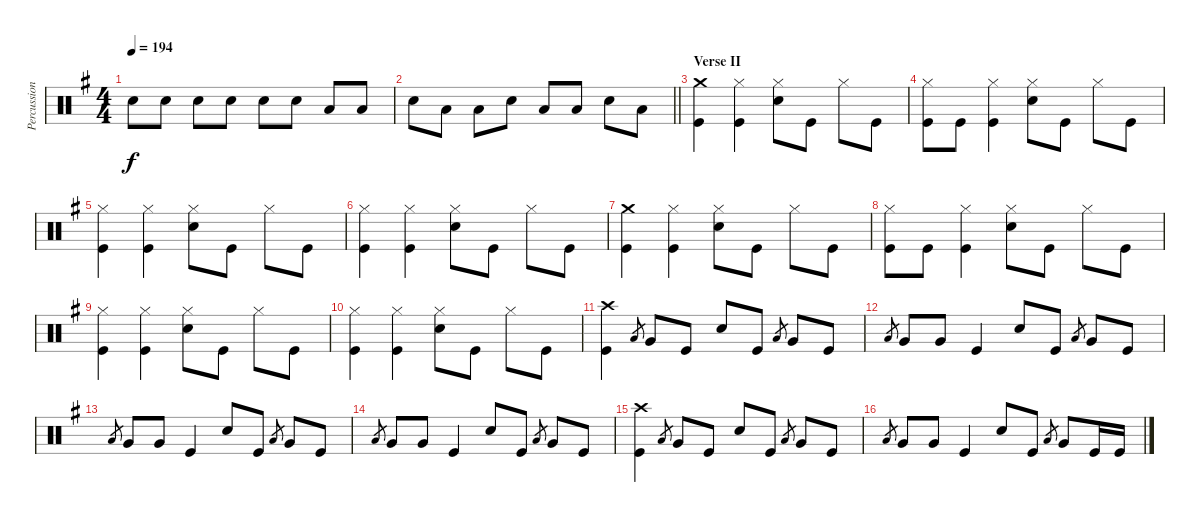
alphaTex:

\track ("Percussion" "Percussion") {instrument percussion}
\staff {score}
\articulation defaults
\ts (4 4)
\tempo 194
\clef neutral
\ks g "Electric Snare (hit)".8{dy f} "Electric Snare (hit)".8 "Electric Snare (hit)".8 "Electric Snare (hit)".8 "Electric Snare (hit)".8 "Electric Snare (hit)".8 "Low Tom (hit)".8 "Low Tom (hit)".8
|
\barLineRight lightlight "Electric Snare (hit)".8 "Low Tom (hit)".8 "Low Tom (hit)".8 "Electric Snare (hit)".8 "Low Tom (hit)".8 "Low Tom (hit)".8 "Electric Snare (hit)".8 "Low Tom (hit)".8
|
\section ("" "Verse II")
("Crash medium (hit)" "Kick (hit)").4 ("Hi-Hat (closed)" "Kick (hit)").4 ("Hi-Hat (closed)" "Electric Snare (hit)").8 "Kick (hit)".8 "Hi-Hat (closed)".8 "Kick (hit)".8 |
("Hi-Hat (closed)" "Kick (hit)").8 "Kick (hit)".8 ("Hi-Hat (closed)" "Kick (hit)").4 ("Hi-Hat (closed)" "Electric Snare (hit)").8 "Kick (hit)".8 "Hi-Hat (closed)".8 "Kick (hit)".8 |
("Hi-Hat (closed)" "Kick (hit)").4 ("Hi-Hat (closed)" "Kick (hit)").4 ("Hi-Hat (closed)" "Electric Snare (hit)").8 "Kick (hit)".8 "Hi-Hat (closed)".8 "Kick (hit)".8 |
("Hi-Hat (closed)" "Kick (hit)").4 ("Hi-Hat (closed)" "Kick (hit)").4 ("Hi-Hat (closed)" "Electric Snare (hit)").8 "Kick (hit)".8 "Hi-Hat (closed)".8 "Kick (hit)".8 |
("Crash medium (hit)" "Kick (hit)").4 ("Hi-Hat (closed)" "Kick (hit)").4 ("Hi-Hat (closed)" "Electric Snare (hit)").8 "Kick (hit)".8 "Hi-Hat (closed)".8 "Kick (hit)".8 |
("Hi-Hat (closed)" "Kick (hit)").8 "Kick (hit)".8 ("Hi-Hat (closed)" "Kick (hit)").4 ("Hi-Hat (closed)" "Electric Snare (hit)").8 "Kick (hit)".8 "Hi-Hat (closed)".8 "Kick (hit)".8 |
("Hi-Hat (closed)" "Kick (hit)").4 ("Hi-Hat (closed)" "Kick (hit)").4 ("Hi-Hat (closed)" "Electric Snare (hit)").8 "Kick (hit)".8 "Hi-Hat (closed)".8 "Kick (hit)".8 |
("Hi-Hat (closed)" "Kick (hit)").4 ("Hi-Hat (closed)" "Kick (hit)").4 ("Hi-Hat (closed)" "Electric Snare (hit)").8 "Kick (hit)".8 "Hi-Hat (closed)".8 "Kick (hit)".8 |
("Crash high (hit)" "Kick (hit)").4 "Low Tom (hit)".8{gr} "Very Low Tom (hit)".8 "Kick (hit)".8 "Electric Snare (hit)".8 "Kick (hit)".8 "Low Tom (hit)".8{gr} "Very Low Tom (hit)".8 "Kick (hit)".8 |
"Low Tom (hit)".8{gr} "Very Low Tom (hit)".8 "Very Low Tom (hit)".8 "Kick (hit)".4 "Electric Snare (hit)".8 "Kick (hit)".8 "Low Tom (hit)".8{gr} "Very Low Tom (hit)".8 "Kick (hit)".8 |
"Low Tom (hit)".8{gr} "Very Low Tom (hit)".8 "Very Low Tom (hit)".8 "Kick (hit)".4 "Electric Snare (hit)".8 "Kick (hit)".8 "Low Tom (hit)".8{gr} "Very Low Tom (hit)".8 "Kick (hit)".8 |
"Low Tom (hit)".8{gr} "Very Low Tom (hit)".8 "Very Low Tom (hit)".8 "Kick (hit)".4 "Electric Snare (hit)".8 "Kick (hit)".8 "Low Tom (hit)".8{gr} "Very Low Tom (hit)".8 "Kick (hit)".8 |
("Crash high (hit)" "Kick (hit)").4 "Low Tom (hit)".8{gr} "Very Low Tom (hit)".8 "Kick (hit)".8 "Electric Snare (hit)".8 "Kick (hit)".8 "Low Tom (hit)".8{gr} "Very Low Tom (hit)".8 "Kick (hit)".8 |
"Low Tom (hit)".8{gr} "Very Low Tom (hit)".8 "Very Low Tom (hit)".8 "Kick (hit)".4 "Electric Snare (hit)".8 "Kick (hit)".8 "Low Tom (hit)".8{gr} "Very Low Tom (hit)".8 "Kick (hit)".16 "Kick (hit)".16
